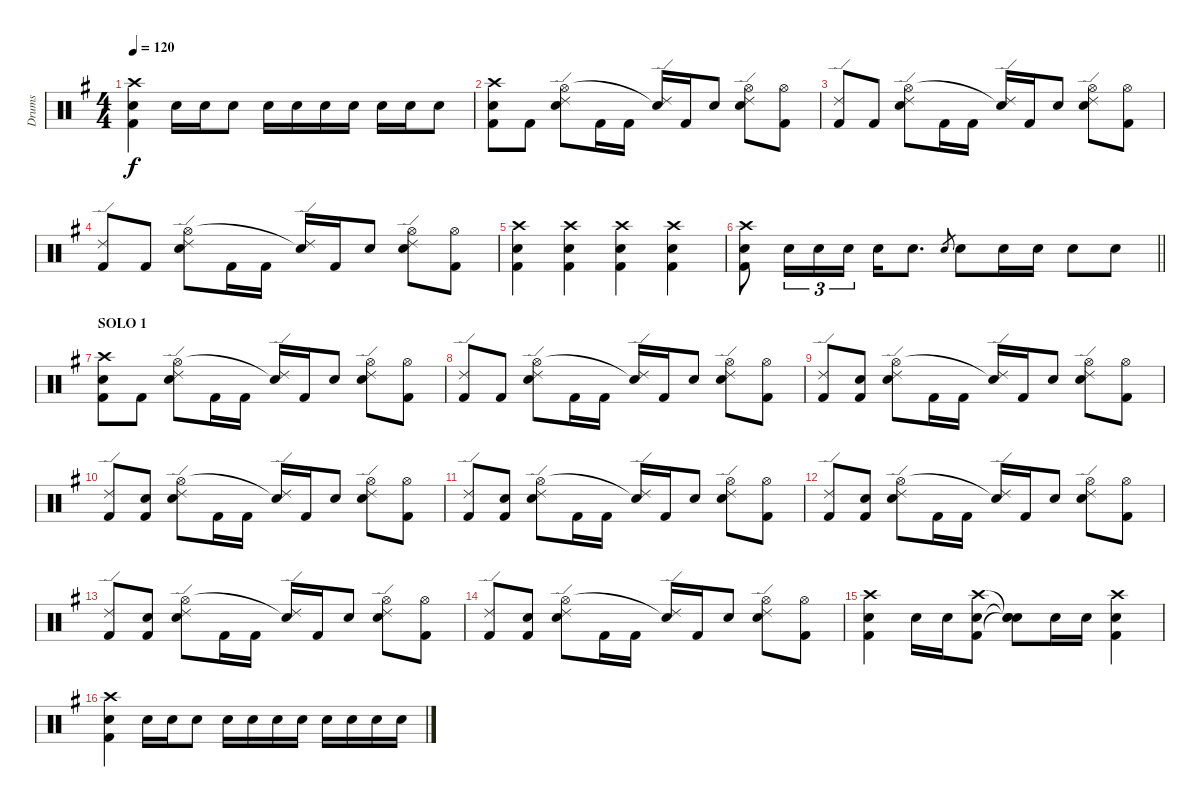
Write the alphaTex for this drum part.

\track ("Drums" "Drums") {instrument percussion}
\staff {score}
\articulation defaults
\ts (4 4)
\tempo 120
\clef neutral
\ks eminor
("Crash high (hit)" "Electric Snare (hit)" "Kick (hit) 2").4{dy f} "Electric Snare (hit)".16 "Electric Snare (hit)".16 "Electric Snare (hit)".8 "Electric Snare (hit)".16 "Electric Snare (hit)".16 "Electric Snare (hit)".16 "Electric Snare (hit)".16 "Electric Snare (hit)".16 "Electric Snare (hit)".16 "Electric Snare (hit)".8 |
("Crash high (hit)" "Electric Snare (hit)" "Kick (hit) 2").8 "Kick (hit) 2".8 ("Ride (edge) 2" "Hi-Hat (open)" "Electric Snare (hit)").8 "Kick (hit) 2".16 "Kick (hit) 2".16 ("Ride (edge) 2" "Snare (hit)"{t}).16 "Kick (hit) 2".16 "Electric Snare (hit)".8 ("Ride (edge) 2" "Hi-Hat (open)" "Electric Snare (hit)").8 ("Hi-Hat (open)" "Kick (hit) 2").8 |
("Ride (edge) 2" "Kick (hit) 2").8 "Kick (hit) 2".8 ("Ride (edge) 2" "Hi-Hat (open)" "Electric Snare (hit)").8 "Kick (hit) 2".16 "Kick (hit) 2".16 ("Ride (edge) 2" "Snare (hit)"{t}).16 "Kick (hit) 2".16 "Electric Snare (hit)".8 ("Ride (edge) 2" "Hi-Hat (open)" "Electric Snare (hit)").8 ("Hi-Hat (open)" "Kick (hit) 2").8 |
("Ride (edge) 2" "Kick (hit) 2").8 "Kick (hit) 2".8 ("Ride (edge) 2" "Hi-Hat (open)" "Electric Snare (hit)").8 "Kick (hit) 2".16 "Kick (hit) 2".16 ("Ride (edge) 2" "Snare (hit)"{t}).16 "Kick (hit) 2".16 "Electric Snare (hit)".8 ("Ride (edge) 2" "Hi-Hat (open)" "Electric Snare (hit)").8 ("Hi-Hat (open)" "Kick (hit) 2").8 |
("Crash high (hit)" "Electric Snare (hit)" "Kick (hit) 2").4 ("Crash high (hit)" "Electric Snare (hit)" "Kick (hit) 2").4 ("Crash high (hit)" "Electric Snare (hit)" "Kick (hit) 2").4 ("Crash high (hit)" "Electric Snare (hit)" "Kick (hit) 2").4 |
\barLineRight lightlight
("Crash high (hit)" "Electric Snare (hit)" "Kick (hit) 2").8 "Electric Snare (hit)".16{tu (3 2)} "Electric Snare (hit)".16{tu (3 2)} "Electric Snare (hit)".16{tu (3 2)} "Electric Snare (hit)".16 "Electric Snare (hit)".8{d} "Electric Snare (hit)".8{gr} "Electric Snare (hit)".8 "Electric Snare (hit)".16 "Electric Snare (hit)".16 "Electric Snare (hit)".8 "Electric Snare (hit)".8 |
\section ("" "SOLO 1")
("Crash high (hit)" "Electric Snare (hit)" "Kick (hit) 2").8 "Kick (hit) 2".8 ("Ride (edge) 2" "Hi-Hat (open)" "Electric Snare (hit)").8 "Kick (hit) 2".16 "Kick (hit) 2".16 ("Ride (edge) 2" "Snare (hit)"{t}).16 "Kick (hit) 2".16 "Electric Snare (hit)".8 ("Ride (edge) 2" "Hi-Hat (open)" "Electric Snare (hit)").8 ("Hi-Hat (open)" "Kick (hit) 2").8 |
("Ride (edge) 2" "Kick (hit) 2").8 "Kick (hit) 2".8 ("Ride (edge) 2" "Hi-Hat (open)" "Electric Snare (hit)").8 "Kick (hit) 2".16 "Kick (hit) 2".16 ("Ride (edge) 2" "Snare (hit)"{t}).16 "Kick (hit) 2".16 "Electric Snare (hit)".8 ("Ride (edge) 2" "Hi-Hat (open)" "Electric Snare (hit)").8 ("Hi-Hat (open)" "Kick (hit) 2").8 |
("Ride (edge) 2" "Kick (hit) 2").8 ("Electric Snare (hit)" "Kick (hit) 2").8 ("Ride (edge) 2" "Hi-Hat (open)" "Electric Snare (hit)").8 "Kick (hit) 2".16 "Kick (hit) 2".16 ("Ride (edge) 2" "Snare (hit)"{t}).16 "Kick (hit) 2".16 "Electric Snare (hit)".8 ("Ride (edge) 2" "Hi-Hat (open)" "Electric Snare (hit)").8 ("Hi-Hat (open)" "Kick (hit) 2").8 |
("Ride (edge) 2" "Kick (hit) 2").8 ("Electric Snare (hit)" "Kick (hit) 2").8 ("Ride (edge) 2" "Hi-Hat (open)" "Electric Snare (hit)").8 "Kick (hit) 2".16 "Kick (hit) 2".16 ("Ride (edge) 2" "Snare (hit)"{t}).16 "Kick (hit) 2".16 "Electric Snare (hit)".8 ("Ride (edge) 2" "Hi-Hat (open)" "Electric Snare (hit)").8 ("Hi-Hat (open)" "Kick (hit) 2").8 |
("Ride (edge) 2" "Kick (hit) 2").8 ("Electric Snare (hit)" "Kick (hit) 2").8 ("Ride (edge) 2" "Hi-Hat (open)" "Electric Snare (hit)").8 "Kick (hit) 2".16 "Kick (hit) 2".16 ("Ride (edge) 2" "Snare (hit)"{t}).16 "Kick (hit) 2".16 "Electric Snare (hit)".8 ("Ride (edge) 2" "Hi-Hat (open)" "Electric Snare (hit)").8 ("Hi-Hat (open)" "Kick (hit) 2").8 |
("Ride (edge) 2" "Kick (hit) 2").8 ("Electric Snare (hit)" "Kick (hit) 2").8 ("Ride (edge) 2" "Hi-Hat (open)" "Electric Snare (hit)").8 "Kick (hit) 2".16 "Kick (hit) 2".16 ("Ride (edge) 2" "Snare (hit)"{t}).16 "Kick (hit) 2".16 "Electric Snare (hit)".8 ("Ride (edge) 2" "Hi-Hat (open)" "Electric Snare (hit)").8 ("Hi-Hat (open)" "Kick (hit) 2").8 |
("Ride (edge) 2" "Kick (hit) 2").8 ("Electric Snare (hit)" "Kick (hit) 2").8 ("Ride (edge) 2" "Hi-Hat (open)" "Electric Snare (hit)").8 "Kick (hit) 2".16 "Kick (hit) 2".16 ("Ride (edge) 2" "Snare (hit)"{t}).16 "Kick (hit) 2".16 "Electric Snare (hit)".8 ("Ride (edge) 2" "Hi-Hat (open)" "Electric Snare (hit)").8 ("Hi-Hat (open)" "Kick (hit) 2").8 |
("Ride (edge) 2" "Kick (hit) 2").8 ("Electric Snare (hit)" "Kick (hit) 2").8 ("Ride (edge) 2" "Hi-Hat (open)" "Electric Snare (hit)").8 "Kick (hit) 2".16 "Kick (hit) 2".16 ("Ride (edge) 2" "Snare (hit)"{t}).16 "Kick (hit) 2".16 "Electric Snare (hit)".8 ("Ride (edge) 2" "Hi-Hat (open)" "Electric Snare (hit)").8 ("Hi-Hat (open)" "Kick (hit) 2").8 |
("Crash high (hit)" "Electric Snare (hit)" "Kick (hit) 2").4 "Electric Snare (hit)".16 "Electric Snare (hit)".16 ("Crash high (hit)" "Electric Snare (hit)" "Kick (hit) 2").8 ("Snare (hit)"{t} "Snare (hit)"{t} "Snare (hit)"{t}).8 "Electric Snare (hit)".16 "Electric Snare (hit)".16 ("Crash high (hit)" "Electric Snare (hit)" "Kick (hit) 2").4 |
("Crash high (hit)" "Electric Snare (hit)" "Kick (hit) 2").4 "Electric Snare (hit)".16 "Electric Snare (hit)".16 "Electric Snare (hit)".8 "Electric Snare (hit)".16 "Electric Snare (hit)".16 "Electric Snare (hit)".16 "Electric Snare (hit)".16 "Electric Snare (hit)".16 "Electric Snare (hit)".16 "Electric Snare (hit)".16 "Electric Snare (hit)".16
